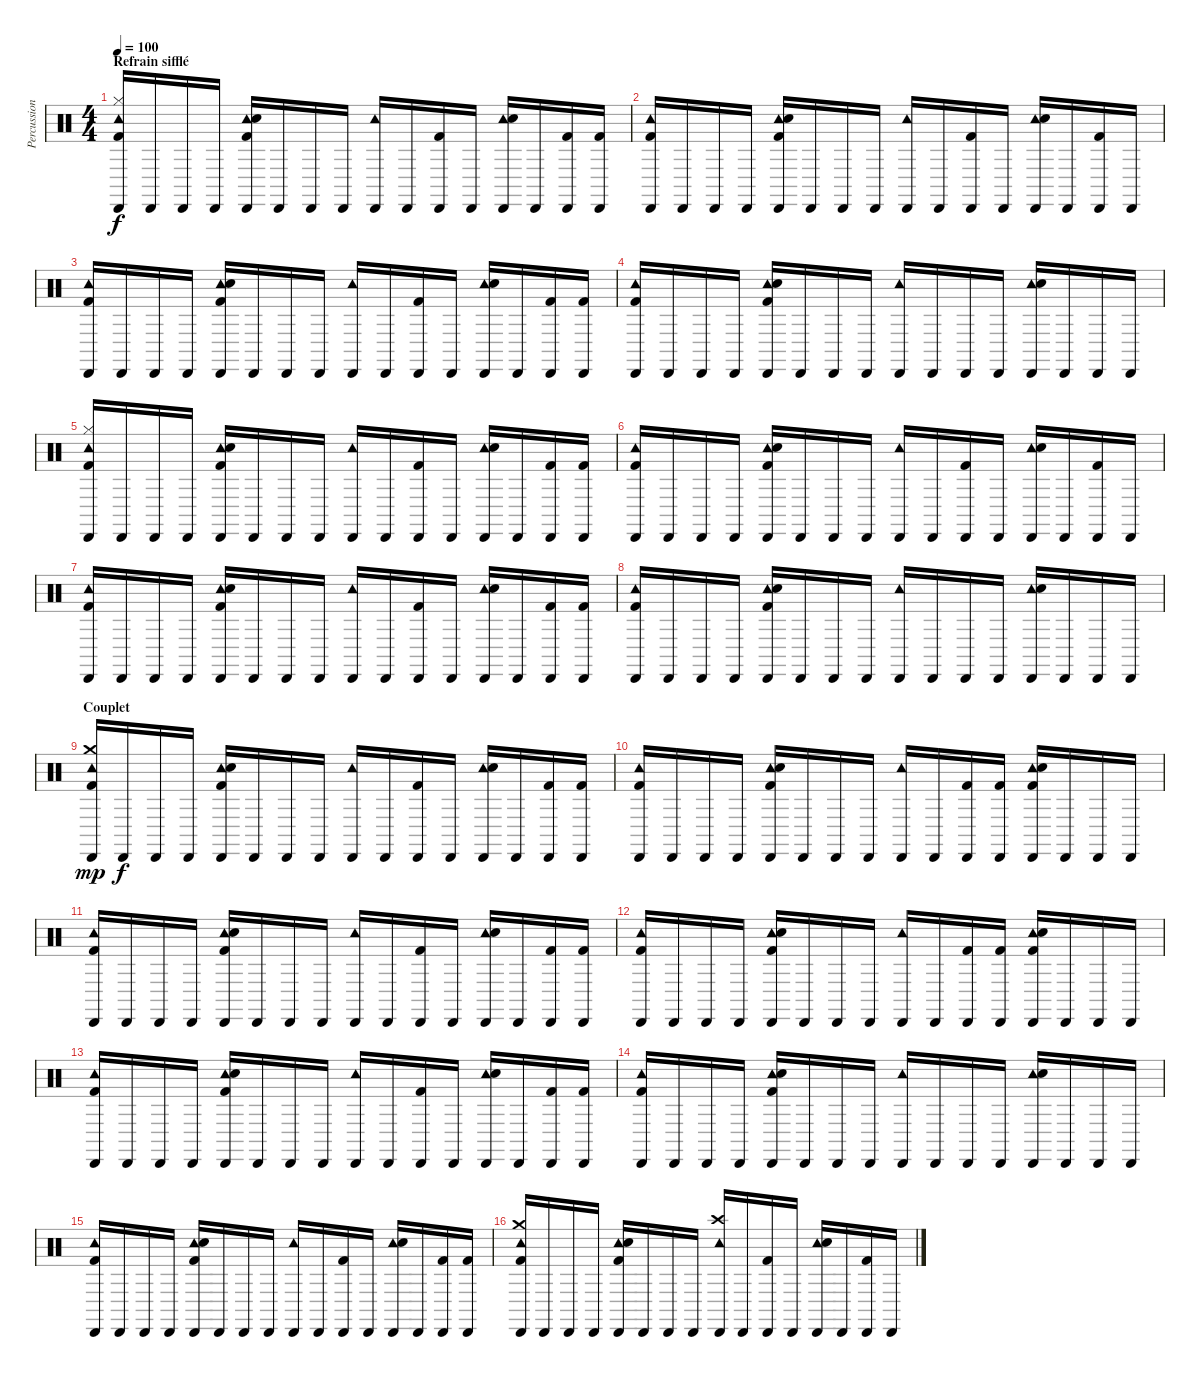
\track ("Percussions" "Percussion") {instrument percussion}
\staff {score}
\articulation defaults
\ts (4 4)
\section ("" "Refrain sifflé")
\tempo 100
\clef neutral
\ks c
("Cabasa (hit)" "Tambourine (hit)" "Hi-Hat (closed)" "Kick (hit) 2").16{dy f} "Cabasa (hit)".16 "Cabasa (hit)".16 "Cabasa (hit)".16 ("Cabasa (hit)" "Tambourine (hit)" "Hand Clap (hit)" "Kick (hit) 2").16 "Cabasa (hit)".16 "Cabasa (hit)".16 "Cabasa (hit)".16 ("Cabasa (hit)" "Tambourine (hit)").16 "Cabasa (hit)".16 ("Cabasa (hit)" "Kick (hit) 2").16 "Cabasa (hit)".16 ("Cabasa (hit)" "Tambourine (hit)" "Hand Clap (hit)").16 "Cabasa (hit)".16 ("Cabasa (hit)" "Kick (hit) 2").16 ("Cabasa (hit)" "Kick (hit) 2").16 |
("Cabasa (hit)" "Tambourine (hit)" "Kick (hit) 2").16 "Cabasa (hit)".16 "Cabasa (hit)".16 "Cabasa (hit)".16 ("Cabasa (hit)" "Tambourine (hit)" "Hand Clap (hit)" "Kick (hit) 2").16 "Cabasa (hit)".16 "Cabasa (hit)".16 "Cabasa (hit)".16 ("Cabasa (hit)" "Tambourine (hit)").16 "Cabasa (hit)".16 ("Cabasa (hit)" "Kick (hit) 2").16 "Cabasa (hit)".16 ("Cabasa (hit)" "Tambourine (hit)" "Hand Clap (hit)").16 "Cabasa (hit)".16 ("Cabasa (hit)" "Kick (hit) 2").16 "Cabasa (hit)".16 |
("Cabasa (hit)" "Tambourine (hit)" "Kick (hit) 2").16 "Cabasa (hit)".16 "Cabasa (hit)".16 "Cabasa (hit)".16 ("Cabasa (hit)" "Tambourine (hit)" "Hand Clap (hit)" "Kick (hit) 2").16 "Cabasa (hit)".16 "Cabasa (hit)".16 "Cabasa (hit)".16 ("Cabasa (hit)" "Tambourine (hit)").16 "Cabasa (hit)".16 ("Cabasa (hit)" "Kick (hit) 2").16 "Cabasa (hit)".16 ("Cabasa (hit)" "Tambourine (hit)" "Hand Clap (hit)").16 "Cabasa (hit)".16 ("Cabasa (hit)" "Kick (hit) 2").16 ("Cabasa (hit)" "Kick (hit) 2").16 |
("Cabasa (hit)" "Tambourine (hit)" "Kick (hit) 2").16 "Cabasa (hit)".16 "Cabasa (hit)".16 "Cabasa (hit)".16 ("Cabasa (hit)" "Tambourine (hit)" "Hand Clap (hit)" "Kick (hit) 2").16 "Cabasa (hit)".16 "Cabasa (hit)".16 "Cabasa (hit)".16 ("Cabasa (hit)" "Tambourine (hit)").16 "Cabasa (hit)".16 "Cabasa (hit)".16 "Cabasa (hit)".16 ("Cabasa (hit)" "Tambourine (hit)" "Hand Clap (hit)").16 "Cabasa (hit)".16 "Cabasa (hit)".16 "Cabasa (hit)".16 |
("Cabasa (hit)" "Tambourine (hit)" "Hi-Hat (closed)" "Kick (hit) 2").16 "Cabasa (hit)".16 "Cabasa (hit)".16 "Cabasa (hit)".16 ("Cabasa (hit)" "Tambourine (hit)" "Hand Clap (hit)" "Kick (hit) 2").16 "Cabasa (hit)".16 "Cabasa (hit)".16 "Cabasa (hit)".16 ("Cabasa (hit)" "Tambourine (hit)").16 "Cabasa (hit)".16 ("Cabasa (hit)" "Kick (hit) 2").16 "Cabasa (hit)".16 ("Cabasa (hit)" "Tambourine (hit)" "Hand Clap (hit)").16 "Cabasa (hit)".16 ("Cabasa (hit)" "Kick (hit) 2").16 ("Cabasa (hit)" "Kick (hit) 2").16 |
("Cabasa (hit)" "Tambourine (hit)" "Kick (hit) 2").16 "Cabasa (hit)".16 "Cabasa (hit)".16 "Cabasa (hit)".16 ("Cabasa (hit)" "Tambourine (hit)" "Hand Clap (hit)" "Kick (hit) 2").16 "Cabasa (hit)".16 "Cabasa (hit)".16 "Cabasa (hit)".16 ("Cabasa (hit)" "Tambourine (hit)").16 "Cabasa (hit)".16 ("Cabasa (hit)" "Kick (hit) 2").16 "Cabasa (hit)".16 ("Cabasa (hit)" "Tambourine (hit)" "Hand Clap (hit)").16 "Cabasa (hit)".16 ("Cabasa (hit)" "Kick (hit) 2").16 "Cabasa (hit)".16 |
("Cabasa (hit)" "Tambourine (hit)" "Kick (hit) 2").16 "Cabasa (hit)".16 "Cabasa (hit)".16 "Cabasa (hit)".16 ("Cabasa (hit)" "Tambourine (hit)" "Hand Clap (hit)" "Kick (hit) 2").16 "Cabasa (hit)".16 "Cabasa (hit)".16 "Cabasa (hit)".16 ("Cabasa (hit)" "Tambourine (hit)").16 "Cabasa (hit)".16 ("Cabasa (hit)" "Kick (hit) 2").16 "Cabasa (hit)".16 ("Cabasa (hit)" "Tambourine (hit)" "Hand Clap (hit)").16 "Cabasa (hit)".16 ("Cabasa (hit)" "Kick (hit) 2").16 ("Cabasa (hit)" "Kick (hit) 2").16 |
("Cabasa (hit)" "Tambourine (hit)" "Kick (hit) 2").16 "Cabasa (hit)".16 "Cabasa (hit)".16 "Cabasa (hit)".16 ("Cabasa (hit)" "Tambourine (hit)" "Hand Clap (hit)" "Kick (hit) 2").16 "Cabasa (hit)".16 "Cabasa (hit)".16 "Cabasa (hit)".16 ("Cabasa (hit)" "Tambourine (hit)").16 "Cabasa (hit)".16 "Cabasa (hit)".16 "Cabasa (hit)".16 ("Cabasa (hit)" "Tambourine (hit)" "Hand Clap (hit)").16 "Cabasa (hit)".16 "Cabasa (hit)".16 "Cabasa (hit)".16 |
\section ("" "Couplet")
("Cabasa (hit)" "Tambourine (hit)" "Crash medium (hit)" "Kick (hit) 2").16{dy mp} "Cabasa (hit)".16{dy f} "Cabasa (hit)".16 "Cabasa (hit)".16 ("Cabasa (hit)" "Tambourine (hit)" "Hand Clap (hit)" "Kick (hit) 2").16 "Cabasa (hit)".16 "Cabasa (hit)".16 "Cabasa (hit)".16 ("Cabasa (hit)" "Tambourine (hit)").16 "Cabasa (hit)".16 ("Cabasa (hit)" "Kick (hit) 2").16 "Cabasa (hit)".16 ("Cabasa (hit)" "Tambourine (hit)" "Hand Clap (hit)").16 "Cabasa (hit)".16 ("Cabasa (hit)" "Kick (hit) 2").16 ("Cabasa (hit)" "Kick (hit) 2").16 |
("Cabasa (hit)" "Tambourine (hit)" "Kick (hit) 2").16 "Cabasa (hit)".16 "Cabasa (hit)".16 "Cabasa (hit)".16 ("Cabasa (hit)" "Tambourine (hit)" "Hand Clap (hit)" "Kick (hit) 2").16 "Cabasa (hit)".16 "Cabasa (hit)".16 "Cabasa (hit)".16 ("Cabasa (hit)" "Tambourine (hit)").16 "Cabasa (hit)".16 ("Cabasa (hit)" "Kick (hit) 2").16 ("Cabasa (hit)" "Kick (hit) 2").16 ("Cabasa (hit)" "Tambourine (hit)" "Hand Clap (hit)" "Kick (hit) 2").16 "Cabasa (hit)".16 "Cabasa (hit)".16 "Cabasa (hit)".16 |
("Cabasa (hit)" "Tambourine (hit)" "Kick (hit) 2").16 "Cabasa (hit)".16 "Cabasa (hit)".16 "Cabasa (hit)".16 ("Cabasa (hit)" "Tambourine (hit)" "Hand Clap (hit)" "Kick (hit) 2").16 "Cabasa (hit)".16 "Cabasa (hit)".16 "Cabasa (hit)".16 ("Cabasa (hit)" "Tambourine (hit)").16 "Cabasa (hit)".16 ("Cabasa (hit)" "Kick (hit) 2").16 "Cabasa (hit)".16 ("Cabasa (hit)" "Tambourine (hit)" "Hand Clap (hit)").16 "Cabasa (hit)".16 ("Cabasa (hit)" "Kick (hit) 2").16 ("Cabasa (hit)" "Kick (hit) 2").16 |
("Cabasa (hit)" "Tambourine (hit)" "Kick (hit) 2").16 "Cabasa (hit)".16 "Cabasa (hit)".16 "Cabasa (hit)".16 ("Cabasa (hit)" "Tambourine (hit)" "Hand Clap (hit)" "Kick (hit) 2").16 "Cabasa (hit)".16 "Cabasa (hit)".16 "Cabasa (hit)".16 ("Cabasa (hit)" "Tambourine (hit)").16 "Cabasa (hit)".16 ("Cabasa (hit)" "Kick (hit) 2").16 ("Cabasa (hit)" "Kick (hit) 2").16 ("Cabasa (hit)" "Tambourine (hit)" "Hand Clap (hit)" "Kick (hit) 2").16 "Cabasa (hit)".16 "Cabasa (hit)".16 "Cabasa (hit)".16 |
("Cabasa (hit)" "Tambourine (hit)" "Kick (hit) 2").16 "Cabasa (hit)".16 "Cabasa (hit)".16 "Cabasa (hit)".16 ("Cabasa (hit)" "Tambourine (hit)" "Hand Clap (hit)" "Kick (hit) 2").16 "Cabasa (hit)".16 "Cabasa (hit)".16 "Cabasa (hit)".16 ("Cabasa (hit)" "Tambourine (hit)").16 "Cabasa (hit)".16 ("Cabasa (hit)" "Kick (hit) 2").16 "Cabasa (hit)".16 ("Cabasa (hit)" "Tambourine (hit)" "Hand Clap (hit)").16 "Cabasa (hit)".16 ("Cabasa (hit)" "Kick (hit) 2").16 ("Cabasa (hit)" "Kick (hit) 2").16 |
("Cabasa (hit)" "Tambourine (hit)" "Kick (hit) 2").16 "Cabasa (hit)".16 "Cabasa (hit)".16 "Cabasa (hit)".16 ("Cabasa (hit)" "Tambourine (hit)" "Hand Clap (hit)" "Kick (hit) 2").16 "Cabasa (hit)".16 "Cabasa (hit)".16 "Cabasa (hit)".16 ("Cabasa (hit)" "Tambourine (hit)").16 "Cabasa (hit)".16 "Cabasa (hit)".16 "Cabasa (hit)".16 ("Cabasa (hit)" "Tambourine (hit)" "Hand Clap (hit)").16 "Cabasa (hit)".16 "Cabasa (hit)".16 "Cabasa (hit)".16 |
("Cabasa (hit)" "Tambourine (hit)" "Kick (hit) 2").16 "Cabasa (hit)".16 "Cabasa (hit)".16 "Cabasa (hit)".16 ("Cabasa (hit)" "Tambourine (hit)" "Hand Clap (hit)" "Kick (hit) 2").16 "Cabasa (hit)".16 "Cabasa (hit)".16 "Cabasa (hit)".16 ("Cabasa (hit)" "Tambourine (hit)").16 "Cabasa (hit)".16 ("Cabasa (hit)" "Kick (hit) 2").16 "Cabasa (hit)".16 ("Cabasa (hit)" "Tambourine (hit)" "Hand Clap (hit)").16 "Cabasa (hit)".16 ("Cabasa (hit)" "Kick (hit) 2").16 ("Cabasa (hit)" "Kick (hit) 2").16 |
("Cabasa (hit)" "Tambourine (hit)" "Crash medium (hit)" "Kick (hit) 2").16 "Cabasa (hit)".16 "Cabasa (hit)".16 "Cabasa (hit)".16 ("Cabasa (hit)" "Tambourine (hit)" "Hand Clap (hit)" "Kick (hit) 2").16 "Cabasa (hit)".16 "Cabasa (hit)".16 "Cabasa (hit)".16 ("Cabasa (hit)" "Tambourine (hit)" "Crash high (hit)").16 "Cabasa (hit)".16 ("Cabasa (hit)" "Kick (hit) 2").16 "Cabasa (hit)".16 ("Cabasa (hit)" "Tambourine (hit)" "Hand Clap (hit)").16 "Cabasa (hit)".16 ("Cabasa (hit)" "Kick (hit) 2").16 "Cabasa (hit)".16
